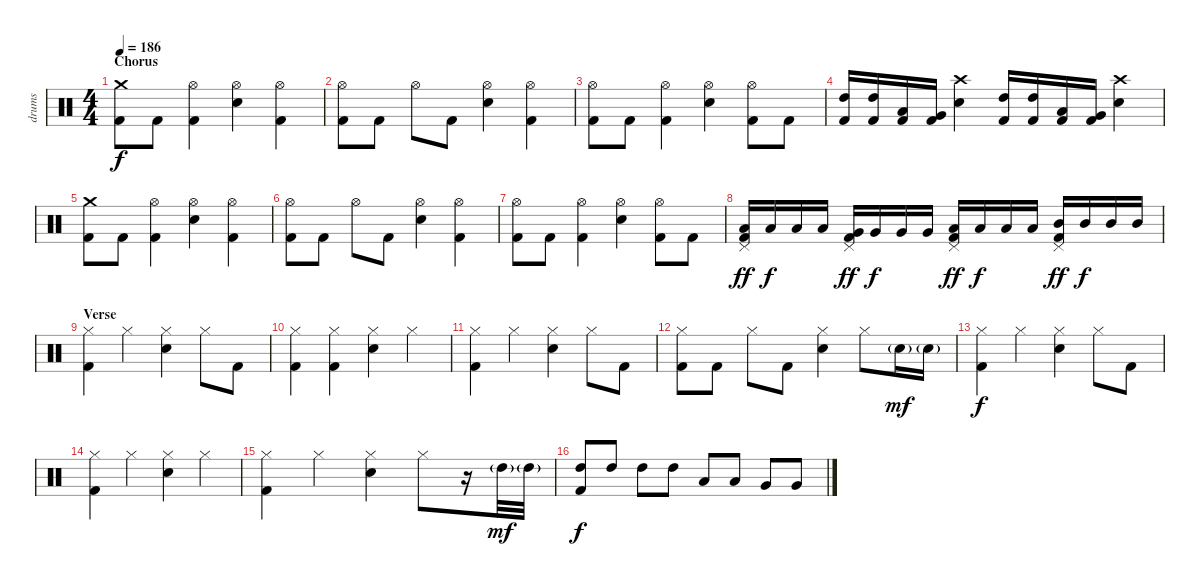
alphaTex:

\track ("drums" "drums") {instrument percussion}
\staff {score}
\articulation defaults
\ts (4 4)
\section ("" "Chorus")
\tempo 186
\clef neutral
\ks c
("Crash medium (hit)" "Kick (hit) 2").8{dy f} "Kick (hit) 2".8 ("Hi-Hat (open)" "Kick (hit) 2").4 ("Hi-Hat (open)" "Electric Snare (hit)").4 ("Hi-Hat (open)" "Kick (hit) 2").4 |
("Hi-Hat (open)" "Kick (hit) 2").8 "Kick (hit) 2".8 "Hi-Hat (open)".8 "Kick (hit) 2".8 ("Hi-Hat (open)" "Electric Snare (hit)").4 ("Hi-Hat (open)" "Kick (hit) 2").4 |
("Hi-Hat (open)" "Kick (hit) 2").8 "Kick (hit) 2".8 ("Hi-Hat (open)" "Kick (hit) 2").4 ("Hi-Hat (open)" "Electric Snare (hit)").4 ("Hi-Hat (open)" "Kick (hit) 2").8 "Kick (hit) 2".8 |
("High Tom (hit)" "Kick (hit) 2").16 ("High Tom (hit)" "Kick (hit) 2").16 ("Low Tom (hit)" "Kick (hit) 2").16 ("Very Low Tom (hit)" "Kick (hit) 2").16 ("Crash high (hit)" "Electric Snare (hit)").4 ("High Tom (hit)" "Kick (hit) 2").16 ("High Tom (hit)" "Kick (hit) 2").16 ("Low Tom (hit)" "Kick (hit) 2").16 ("Very Low Tom (hit)" "Kick (hit) 2").16 ("Crash high (hit)" "Electric Snare (hit)").4 |
("Crash medium (hit)" "Kick (hit) 2").8 "Kick (hit) 2".8 ("Hi-Hat (open)" "Kick (hit) 2").4 ("Hi-Hat (open)" "Electric Snare (hit)").4 ("Hi-Hat (open)" "Kick (hit) 2").4 |
("Hi-Hat (open)" "Kick (hit) 2").8 "Kick (hit) 2".8 "Hi-Hat (open)".8 "Kick (hit) 2".8 ("Hi-Hat (open)" "Electric Snare (hit)").4 ("Hi-Hat (open)" "Kick (hit) 2").4 |
("Hi-Hat (open)" "Kick (hit) 2").8 "Kick (hit) 2".8 ("Hi-Hat (open)" "Kick (hit) 2").4 ("Hi-Hat (open)" "Electric Snare (hit)").4 ("Hi-Hat (open)" "Kick (hit) 2").8 "Kick (hit) 2".8 |
("Pedal Hi-Hat (hit)" "Low Floor Tom (hit)" "Kick (hit) 2").16{dy ff} "Low Floor Tom (hit)".16{dy f} "Low Floor Tom (hit)".16 "Low Floor Tom (hit)".16 ("Pedal Hi-Hat (hit)" "Very Low Tom (hit)" "Kick (hit) 2").16{dy ff} "Very Low Tom (hit)".16{dy f} "Very Low Tom (hit)".16 "Very Low Tom (hit)".16 ("Pedal Hi-Hat (hit)" "Low Tom (hit)" "Kick (hit) 2").16{dy ff} "Low Tom (hit)".16{dy f} "Low Tom (hit)".16 "Low Tom (hit)".16 ("Pedal Hi-Hat (hit)" "Mid Tom (hit)" "Kick (hit) 2").16{dy ff} "Mid Tom (hit)".16{dy f} "Mid Tom (hit)".16 "Mid Tom (hit)".16 |
\section ("" "Verse")
("Hi-Hat (closed)" "Kick (hit) 2").4 "Hi-Hat (closed)".4 ("Hi-Hat (closed)" "Electric Snare (hit)").4 "Hi-Hat (closed)".8 "Kick (hit) 2".8 |
("Hi-Hat (closed)" "Kick (hit) 2").4 ("Hi-Hat (closed)" "Kick (hit) 2").4 ("Hi-Hat (closed)" "Electric Snare (hit)").4 "Hi-Hat (closed)".4 |
("Hi-Hat (closed)" "Kick (hit) 2").4 "Hi-Hat (closed)".4 ("Hi-Hat (closed)" "Electric Snare (hit)").4 "Hi-Hat (closed)".8 "Kick (hit) 2".8 |
("Hi-Hat (closed)" "Kick (hit) 2").8 "Kick (hit) 2".8 "Hi-Hat (closed)".8 "Kick (hit) 2".8 ("Hi-Hat (closed)" "Electric Snare (hit)").4 "Hi-Hat (closed)".8 "Electric Snare (hit)"{g}.16{dy mf} "Electric Snare (hit)"{g}.16 |
("Hi-Hat (closed)" "Kick (hit) 2").4{dy f} "Hi-Hat (closed)".4 ("Hi-Hat (closed)" "Electric Snare (hit)").4 "Hi-Hat (closed)".8 "Kick (hit) 2".8 |
("Hi-Hat (closed)" "Kick (hit) 2").4 "Hi-Hat (closed)".4 ("Hi-Hat (closed)" "Electric Snare (hit)").4 "Hi-Hat (closed)".4 |
("Hi-Hat (closed)" "Kick (hit) 2").4 "Hi-Hat (closed)".4 ("Hi-Hat (closed)" "Electric Snare (hit)").4 "Hi-Hat (closed)".8 r.16 "High Tom (hit)"{g}.32{dy mf} "High Tom (hit)"{g}.32 |
("High Tom (hit)" "Kick (hit) 2").8{dy f} "High Tom (hit)".8 "High Tom (hit)".8 "High Tom (hit)".8 "Low Tom (hit)".8 "Low Tom (hit)".8 "Very Low Tom (hit)".8 "Very Low Tom (hit)".8
